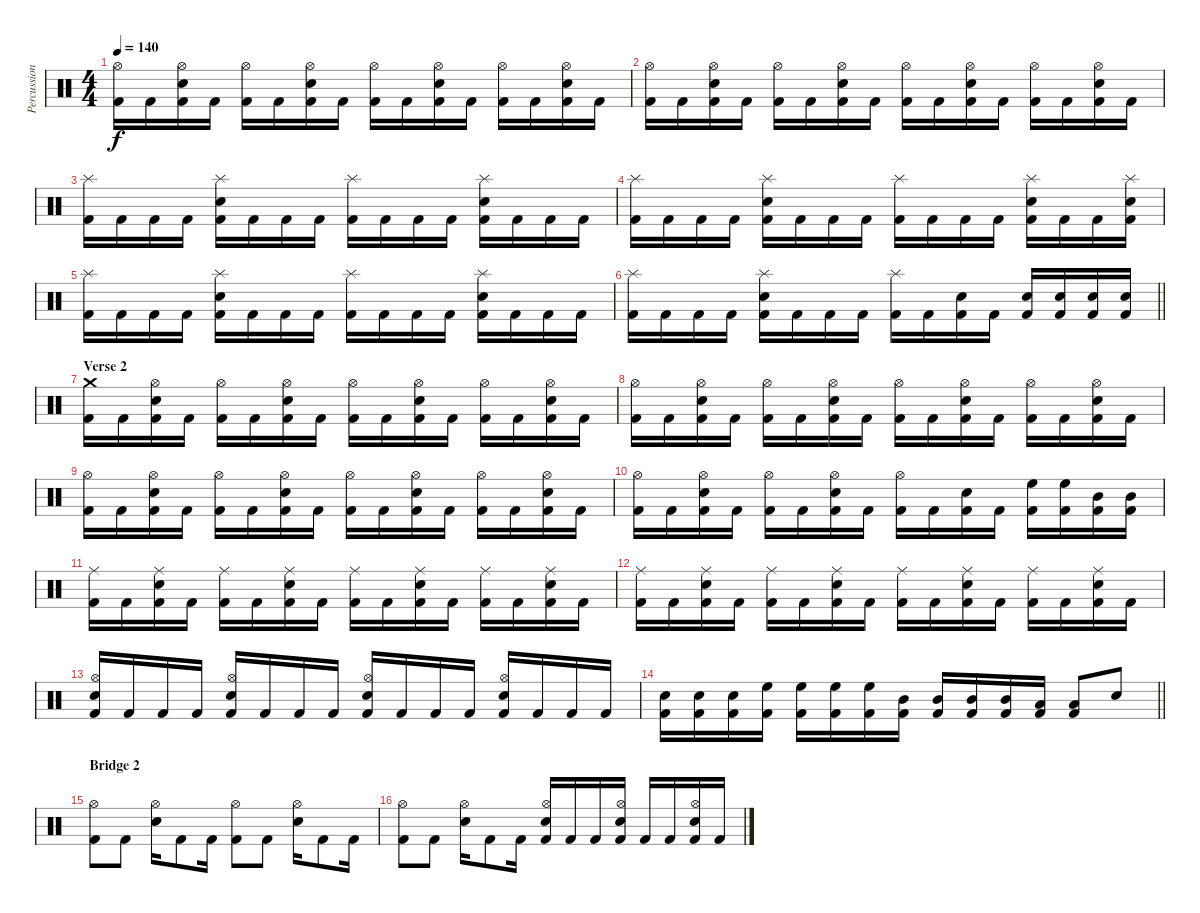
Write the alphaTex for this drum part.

\track ("Percussion" "Percussion") {instrument percussion}
\staff {score}
\articulation defaults
\ts (4 4)
\tempo 140
\clef neutral
\ks c
("Kick (hit) 2" "Hi-Hat (open)").16{dy f} "Kick (hit) 2".16 ("Kick (hit) 2" "Electric Snare (hit)" "Hi-Hat (open)").16 "Kick (hit) 2".16 ("Kick (hit) 2" "Hi-Hat (open)").16 "Kick (hit) 2".16 ("Kick (hit) 2" "Electric Snare (hit)" "Hi-Hat (open)").16 "Kick (hit) 2".16 ("Kick (hit) 2" "Hi-Hat (open)").16 "Kick (hit) 2".16 ("Kick (hit) 2" "Electric Snare (hit)" "Hi-Hat (open)").16 "Kick (hit) 2".16 ("Kick (hit) 2" "Hi-Hat (open)").16 "Kick (hit) 2".16 ("Kick (hit) 2" "Electric Snare (hit)" "Hi-Hat (open)").16 "Kick (hit) 2".16 |
("Kick (hit) 2" "Hi-Hat (open)").16 "Kick (hit) 2".16 ("Kick (hit) 2" "Electric Snare (hit)" "Hi-Hat (open)").16 "Kick (hit) 2".16 ("Kick (hit) 2" "Hi-Hat (open)").16 "Kick (hit) 2".16 ("Kick (hit) 2" "Electric Snare (hit)" "Hi-Hat (open)").16 "Kick (hit) 2".16 ("Kick (hit) 2" "Hi-Hat (open)").16 "Kick (hit) 2".16 ("Kick (hit) 2" "Electric Snare (hit)" "Hi-Hat (open)").16 "Kick (hit) 2".16 ("Kick (hit) 2" "Hi-Hat (open)").16 "Kick (hit) 2".16 ("Kick (hit) 2" "Electric Snare (hit)" "Hi-Hat (open)").16 "Kick (hit) 2".16 |
("Kick (hit) 2" "Splash (hit)").16 "Kick (hit) 2".16 "Kick (hit) 2".16 "Kick (hit) 2".16 ("Kick (hit) 2" "Electric Snare (hit)" "Splash (hit)").16 "Kick (hit) 2".16 "Kick (hit) 2".16 "Kick (hit) 2".16 ("Kick (hit) 2" "Splash (hit)").16 "Kick (hit) 2".16 "Kick (hit) 2".16 "Kick (hit) 2".16 ("Kick (hit) 2" "Electric Snare (hit)" "Splash (hit)").16 "Kick (hit) 2".16 "Kick (hit) 2".16 "Kick (hit) 2".16 |
("Kick (hit) 2" "Splash (hit)").16 "Kick (hit) 2".16 "Kick (hit) 2".16 "Kick (hit) 2".16 ("Kick (hit) 2" "Electric Snare (hit)" "Splash (hit)").16 "Kick (hit) 2".16 "Kick (hit) 2".16 "Kick (hit) 2".16 ("Kick (hit) 2" "Splash (hit)").16 "Kick (hit) 2".16 "Kick (hit) 2".16 "Kick (hit) 2".16 ("Kick (hit) 2" "Electric Snare (hit)" "Splash (hit)").16 "Kick (hit) 2".16 "Kick (hit) 2".16 ("Kick (hit) 2" "Electric Snare (hit)" "Splash (hit)").16 |
("Kick (hit) 2" "Splash (hit)").16 "Kick (hit) 2".16 "Kick (hit) 2".16 "Kick (hit) 2".16 ("Kick (hit) 2" "Electric Snare (hit)" "Splash (hit)").16 "Kick (hit) 2".16 "Kick (hit) 2".16 "Kick (hit) 2".16 ("Kick (hit) 2" "Splash (hit)").16 "Kick (hit) 2".16 "Kick (hit) 2".16 "Kick (hit) 2".16 ("Kick (hit) 2" "Electric Snare (hit)" "Splash (hit)").16 "Kick (hit) 2".16 "Kick (hit) 2".16 "Kick (hit) 2".16 |
\barLineRight lightlight
("Kick (hit) 2" "Splash (hit)").16 "Kick (hit) 2".16 "Kick (hit) 2".16 "Kick (hit) 2".16 ("Kick (hit) 2" "Electric Snare (hit)" "Splash (hit)").16 "Kick (hit) 2".16 "Kick (hit) 2".16 "Kick (hit) 2".16 ("Kick (hit) 2" "Splash (hit)").16 "Kick (hit) 2".16 ("Kick (hit) 2" "Electric Snare (hit)").16 "Kick (hit) 2".16 ("Kick (hit) 2" "Electric Snare (hit)").16 ("Kick (hit) 2" "Electric Snare (hit)").16 ("Kick (hit) 2" "Electric Snare (hit)").16 ("Kick (hit) 2" "Electric Snare (hit)").16 |
\section ("" "Verse 2")
("Kick (hit) 2" "Crash medium (hit)").16 "Kick (hit) 2".16 ("Kick (hit) 2" "Electric Snare (hit)" "Hi-Hat (open)").16 "Kick (hit) 2".16 ("Kick (hit) 2" "Hi-Hat (open)").16 "Kick (hit) 2".16 ("Kick (hit) 2" "Electric Snare (hit)" "Hi-Hat (open)").16 "Kick (hit) 2".16 ("Kick (hit) 2" "Hi-Hat (open)").16 "Kick (hit) 2".16 ("Kick (hit) 2" "Electric Snare (hit)" "Hi-Hat (open)").16 "Kick (hit) 2".16 ("Kick (hit) 2" "Hi-Hat (open)").16 "Kick (hit) 2".16 ("Kick (hit) 2" "Electric Snare (hit)" "Hi-Hat (open)").16 "Kick (hit) 2".16 |
("Kick (hit) 2" "Hi-Hat (open)").16 "Kick (hit) 2".16 ("Kick (hit) 2" "Electric Snare (hit)" "Hi-Hat (open)").16 "Kick (hit) 2".16 ("Kick (hit) 2" "Hi-Hat (open)").16 "Kick (hit) 2".16 ("Kick (hit) 2" "Electric Snare (hit)" "Hi-Hat (open)").16 "Kick (hit) 2".16 ("Kick (hit) 2" "Hi-Hat (open)").16 "Kick (hit) 2".16 ("Kick (hit) 2" "Electric Snare (hit)" "Hi-Hat (open)").16 "Kick (hit) 2".16 ("Kick (hit) 2" "Hi-Hat (open)").16 "Kick (hit) 2".16 ("Kick (hit) 2" "Electric Snare (hit)" "Hi-Hat (open)").16 "Kick (hit) 2".16 |
("Kick (hit) 2" "Hi-Hat (open)").16 "Kick (hit) 2".16 ("Kick (hit) 2" "Electric Snare (hit)" "Hi-Hat (open)").16 "Kick (hit) 2".16 ("Kick (hit) 2" "Hi-Hat (open)").16 "Kick (hit) 2".16 ("Kick (hit) 2" "Electric Snare (hit)" "Hi-Hat (open)").16 "Kick (hit) 2".16 ("Kick (hit) 2" "Hi-Hat (open)").16 "Kick (hit) 2".16 ("Kick (hit) 2" "Electric Snare (hit)" "Hi-Hat (open)").16 "Kick (hit) 2".16 ("Kick (hit) 2" "Hi-Hat (open)").16 "Kick (hit) 2".16 ("Kick (hit) 2" "Electric Snare (hit)" "Hi-Hat (open)").16 "Kick (hit) 2".16 |
("Kick (hit) 2" "Hi-Hat (open)").16 "Kick (hit) 2".16 ("Kick (hit) 2" "Electric Snare (hit)" "Hi-Hat (open)").16 "Kick (hit) 2".16 ("Kick (hit) 2" "Hi-Hat (open)").16 "Kick (hit) 2".16 ("Kick (hit) 2" "Electric Snare (hit)" "Hi-Hat (open)").16 "Kick (hit) 2".16 ("Kick (hit) 2" "Hi-Hat (open)").16 "Kick (hit) 2".16 ("Kick (hit) 2" "Electric Snare (hit)").16 "Kick (hit) 2".16 ("Kick (hit) 2" "High Floor Tom (hit)").16 ("Kick (hit) 2" "High Floor Tom (hit)").16 ("Kick (hit) 2" "Mid Tom (hit)").16 ("Kick (hit) 2" "Mid Tom (hit)").16 |
("Kick (hit) 2" "Ride (middle)").16 "Kick (hit) 2".16 ("Kick (hit) 2" "Electric Snare (hit)" "Ride (middle)").16 "Kick (hit) 2".16 ("Kick (hit) 2" "Ride (middle)").16 "Kick (hit) 2".16 ("Kick (hit) 2" "Electric Snare (hit)" "Ride (middle)").16 "Kick (hit) 2".16 ("Kick (hit) 2" "Ride (middle)").16 "Kick (hit) 2".16 ("Kick (hit) 2" "Electric Snare (hit)" "Ride (middle)").16 "Kick (hit) 2".16 ("Kick (hit) 2" "Ride (middle)").16 "Kick (hit) 2".16 ("Kick (hit) 2" "Electric Snare (hit)" "Ride (middle)").16 "Kick (hit) 2".16 |
("Kick (hit) 2" "Ride (middle)").16 "Kick (hit) 2".16 ("Kick (hit) 2" "Electric Snare (hit)" "Ride (middle)").16 "Kick (hit) 2".16 ("Kick (hit) 2" "Ride (middle)").16 "Kick (hit) 2".16 ("Kick (hit) 2" "Electric Snare (hit)" "Ride (middle)").16 "Kick (hit) 2".16 ("Kick (hit) 2" "Ride (middle)").16 "Kick (hit) 2".16 ("Kick (hit) 2" "Electric Snare (hit)" "Ride (middle)").16 "Kick (hit) 2".16 ("Kick (hit) 2" "Ride (middle)").16 "Kick (hit) 2".16 ("Kick (hit) 2" "Electric Snare (hit)" "Ride (middle)").16 "Kick (hit) 2".16 |
("Kick (hit) 2" "Electric Snare (hit)" "Hi-Hat (open)").16 "Kick (hit) 2".16 "Kick (hit) 2".16 "Kick (hit) 2".16 ("Kick (hit) 2" "Electric Snare (hit)" "Hi-Hat (open)").16 "Kick (hit) 2".16 "Kick (hit) 2".16 "Kick (hit) 2".16 ("Kick (hit) 2" "Electric Snare (hit)" "Hi-Hat (open)").16 "Kick (hit) 2".16 "Kick (hit) 2".16 "Kick (hit) 2".16 ("Kick (hit) 2" "Electric Snare (hit)" "Hi-Hat (open)").16 "Kick (hit) 2".16 "Kick (hit) 2".16 "Kick (hit) 2".16 |
\barLineRight lightlight
("Kick (hit) 2" "Electric Snare (hit)").16 ("Kick (hit) 2" "Electric Snare (hit)").16 ("Kick (hit) 2" "Electric Snare (hit)").16 ("Kick (hit) 2" "High Floor Tom (hit)").16 ("Kick (hit) 2" "High Floor Tom (hit)").16 ("Kick (hit) 2" "High Floor Tom (hit)").16 ("Kick (hit) 2" "High Floor Tom (hit)").16 ("Kick (hit) 2" "Mid Tom (hit)").16 ("Kick (hit) 2" "Mid Tom (hit)").16 ("Kick (hit) 2" "Mid Tom (hit)").16 ("Kick (hit) 2" "Mid Tom (hit)").16 ("Kick (hit) 2" "Low Floor Tom (hit)").16 ("Kick (hit) 2" "Low Floor Tom (hit)").8 "Electric Snare (hit)".8 |
\section ("" "Bridge 2")
("Kick (hit) 2" "Hi-Hat (open)").8 "Kick (hit) 2".8 ("Electric Snare (hit)" "Hi-Hat (open)").16 "Kick (hit) 2".8 "Kick (hit) 2".16 ("Kick (hit) 2" "Hi-Hat (open)").8 "Kick (hit) 2".8 ("Electric Snare (hit)" "Hi-Hat (open)").16 "Kick (hit) 2".8 "Kick (hit) 2".16 |
("Kick (hit) 2" "Hi-Hat (open)").8 "Kick (hit) 2".8 ("Electric Snare (hit)" "Hi-Hat (open)").16 "Kick (hit) 2".8 "Kick (hit) 2".16 ("Kick (hit) 2" "Electric Snare (hit)" "Hi-Hat (open)").16 "Kick (hit) 2".16 "Kick (hit) 2".16 ("Kick (hit) 2" "Electric Snare (hit)" "Hi-Hat (open)").16 "Kick (hit) 2".16 "Kick (hit) 2".16 ("Kick (hit) 2" "Electric Snare (hit)" "Hi-Hat (open)").16 "Kick (hit) 2".16
